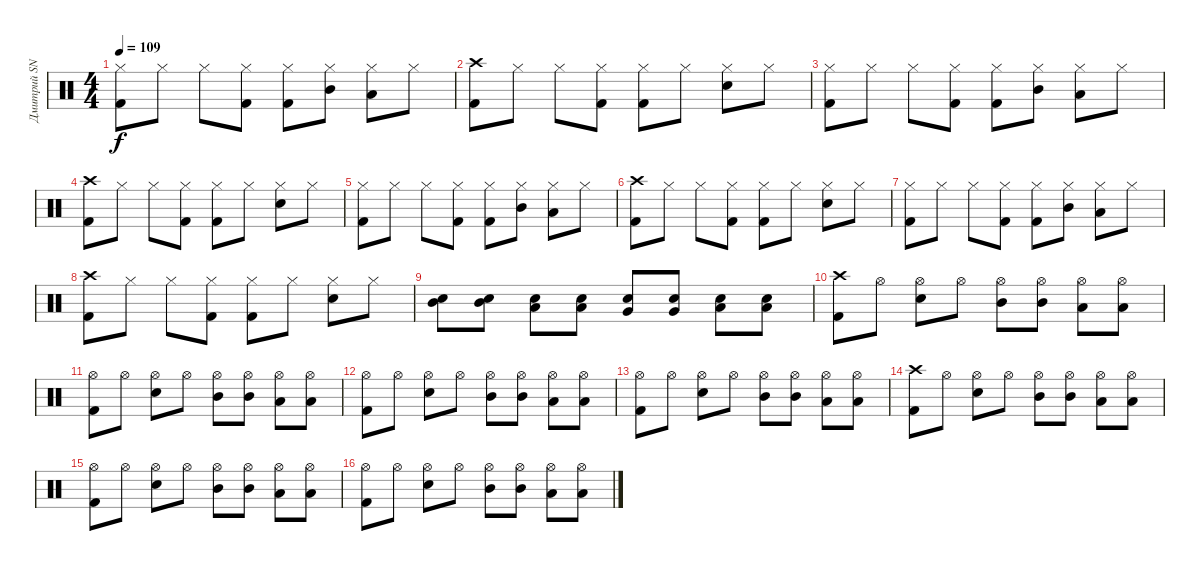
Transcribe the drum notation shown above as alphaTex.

\track ("Дмитрий SNAKE Хакимов" "Дмитрий SN") {instrument percussion}
\staff {score}
\articulation defaults
\ts (4 4)
\tempo 109
\clef neutral
\ks c
("Hi-Hat (closed)" "Kick (hit) 2").8{dy f} "Hi-Hat (closed)".8 "Hi-Hat (closed)".8 ("Hi-Hat (closed)" "Kick (hit) 2").8 ("Hi-Hat (closed)" "Kick (hit) 2").8 ("Hi-Hat (closed)" "Mid Tom (hit)").8 ("Hi-Hat (closed)" "Low Tom (hit)").8 "Hi-Hat (closed)".8 |
("Crash high (hit)" "Kick (hit) 2").8 "Hi-Hat (closed)".8 "Hi-Hat (closed)".8 ("Hi-Hat (closed)" "Kick (hit) 2").8 ("Hi-Hat (closed)" "Kick (hit) 2").8 "Hi-Hat (closed)".8 ("Hi-Hat (closed)" "Snare (hit) 2").8 "Hi-Hat (closed)".8 |
("Hi-Hat (closed)" "Kick (hit) 2").8 "Hi-Hat (closed)".8 "Hi-Hat (closed)".8 ("Hi-Hat (closed)" "Kick (hit) 2").8 ("Hi-Hat (closed)" "Kick (hit) 2").8 ("Hi-Hat (closed)" "Mid Tom (hit)").8 ("Hi-Hat (closed)" "Low Tom (hit)").8 "Hi-Hat (closed)".8 |
("Crash high (hit)" "Kick (hit) 2").8 "Hi-Hat (closed)".8 "Hi-Hat (closed)".8 ("Hi-Hat (closed)" "Kick (hit) 2").8 ("Hi-Hat (closed)" "Kick (hit) 2").8 "Hi-Hat (closed)".8 ("Hi-Hat (closed)" "Snare (hit) 2").8 "Hi-Hat (closed)".8 |
("Hi-Hat (closed)" "Kick (hit) 2").8 "Hi-Hat (closed)".8 "Hi-Hat (closed)".8 ("Hi-Hat (closed)" "Kick (hit) 2").8 ("Hi-Hat (closed)" "Kick (hit) 2").8 ("Hi-Hat (closed)" "Mid Tom (hit)").8 ("Hi-Hat (closed)" "Low Tom (hit)").8 "Hi-Hat (closed)".8 |
("Crash high (hit)" "Kick (hit) 2").8 "Hi-Hat (closed)".8 "Hi-Hat (closed)".8 ("Hi-Hat (closed)" "Kick (hit) 2").8 ("Hi-Hat (closed)" "Kick (hit) 2").8 "Hi-Hat (closed)".8 ("Hi-Hat (closed)" "Snare (hit) 2").8 "Hi-Hat (closed)".8 |
("Hi-Hat (closed)" "Kick (hit) 2").8 "Hi-Hat (closed)".8 "Hi-Hat (closed)".8 ("Hi-Hat (closed)" "Kick (hit) 2").8 ("Hi-Hat (closed)" "Kick (hit) 2").8 ("Hi-Hat (closed)" "Mid Tom (hit)").8 ("Hi-Hat (closed)" "Low Tom (hit)").8 "Hi-Hat (closed)".8 |
("Crash high (hit)" "Kick (hit) 2").8 "Hi-Hat (closed)".8 "Hi-Hat (closed)".8 ("Hi-Hat (closed)" "Kick (hit) 2").8 ("Hi-Hat (closed)" "Kick (hit) 2").8 "Hi-Hat (closed)".8 ("Hi-Hat (closed)" "Snare (hit) 2").8 "Hi-Hat (closed)".8 |
("Mid Tom (hit)" "Snare (hit) 2").8 ("Mid Tom (hit)" "Snare (hit) 2").8 ("Low Tom (hit)" "Snare (hit) 2").8 ("Low Tom (hit)" "Snare (hit) 2").8 ("Very Low Tom (hit)" "Snare (hit) 2").8 ("Very Low Tom (hit)" "Snare (hit) 2").8 ("Low Floor Tom (hit)" "Snare (hit) 2").8 ("Low Floor Tom (hit)" "Snare (hit) 2").8 |
("Crash high (hit)" "Kick (hit) 2").8 "Hi-Hat (open)".8 ("Hi-Hat (open)" "Snare (hit) 2").8 "Hi-Hat (open)".8 ("Hi-Hat (open)" "Mid Tom (hit)").8 ("Hi-Hat (open)" "Mid Tom (hit)").8 ("Hi-Hat (open)" "Low Tom (hit)").8 ("Hi-Hat (open)" "Low Tom (hit)").8 |
("Hi-Hat (open)" "Kick (hit) 2").8 "Hi-Hat (open)".8 ("Hi-Hat (open)" "Snare (hit) 2").8 "Hi-Hat (open)".8 ("Hi-Hat (open)" "Mid Tom (hit)").8 ("Hi-Hat (open)" "Mid Tom (hit)").8 ("Hi-Hat (open)" "Low Tom (hit)").8 ("Hi-Hat (open)" "Low Tom (hit)").8 |
("Hi-Hat (open)" "Kick (hit) 2").8 "Hi-Hat (open)".8 ("Hi-Hat (open)" "Snare (hit) 2").8 "Hi-Hat (open)".8 ("Hi-Hat (open)" "Mid Tom (hit)").8 ("Hi-Hat (open)" "Mid Tom (hit)").8 ("Hi-Hat (open)" "Low Tom (hit)").8 ("Hi-Hat (open)" "Low Tom (hit)").8 |
("Hi-Hat (open)" "Kick (hit) 2").8 "Hi-Hat (open)".8 ("Hi-Hat (open)" "Snare (hit) 2").8 "Hi-Hat (open)".8 ("Hi-Hat (open)" "Mid Tom (hit)").8 ("Hi-Hat (open)" "Mid Tom (hit)").8 ("Hi-Hat (open)" "Low Tom (hit)").8 ("Hi-Hat (open)" "Low Tom (hit)").8 |
("Crash high (hit)" "Kick (hit) 2").8 "Hi-Hat (open)".8 ("Hi-Hat (open)" "Snare (hit) 2").8 "Hi-Hat (open)".8 ("Hi-Hat (open)" "Mid Tom (hit)").8 ("Hi-Hat (open)" "Mid Tom (hit)").8 ("Hi-Hat (open)" "Low Tom (hit)").8 ("Hi-Hat (open)" "Low Tom (hit)").8 |
("Hi-Hat (open)" "Kick (hit) 2").8 "Hi-Hat (open)".8 ("Hi-Hat (open)" "Snare (hit) 2").8 "Hi-Hat (open)".8 ("Hi-Hat (open)" "Mid Tom (hit)").8 ("Hi-Hat (open)" "Mid Tom (hit)").8 ("Hi-Hat (open)" "Low Tom (hit)").8 ("Hi-Hat (open)" "Low Tom (hit)").8 |
("Hi-Hat (open)" "Kick (hit) 2").8 "Hi-Hat (open)".8 ("Hi-Hat (open)" "Snare (hit) 2").8 "Hi-Hat (open)".8 ("Hi-Hat (open)" "Mid Tom (hit)").8 ("Hi-Hat (open)" "Mid Tom (hit)").8 ("Hi-Hat (open)" "Low Tom (hit)").8 ("Hi-Hat (open)" "Low Tom (hit)").8
